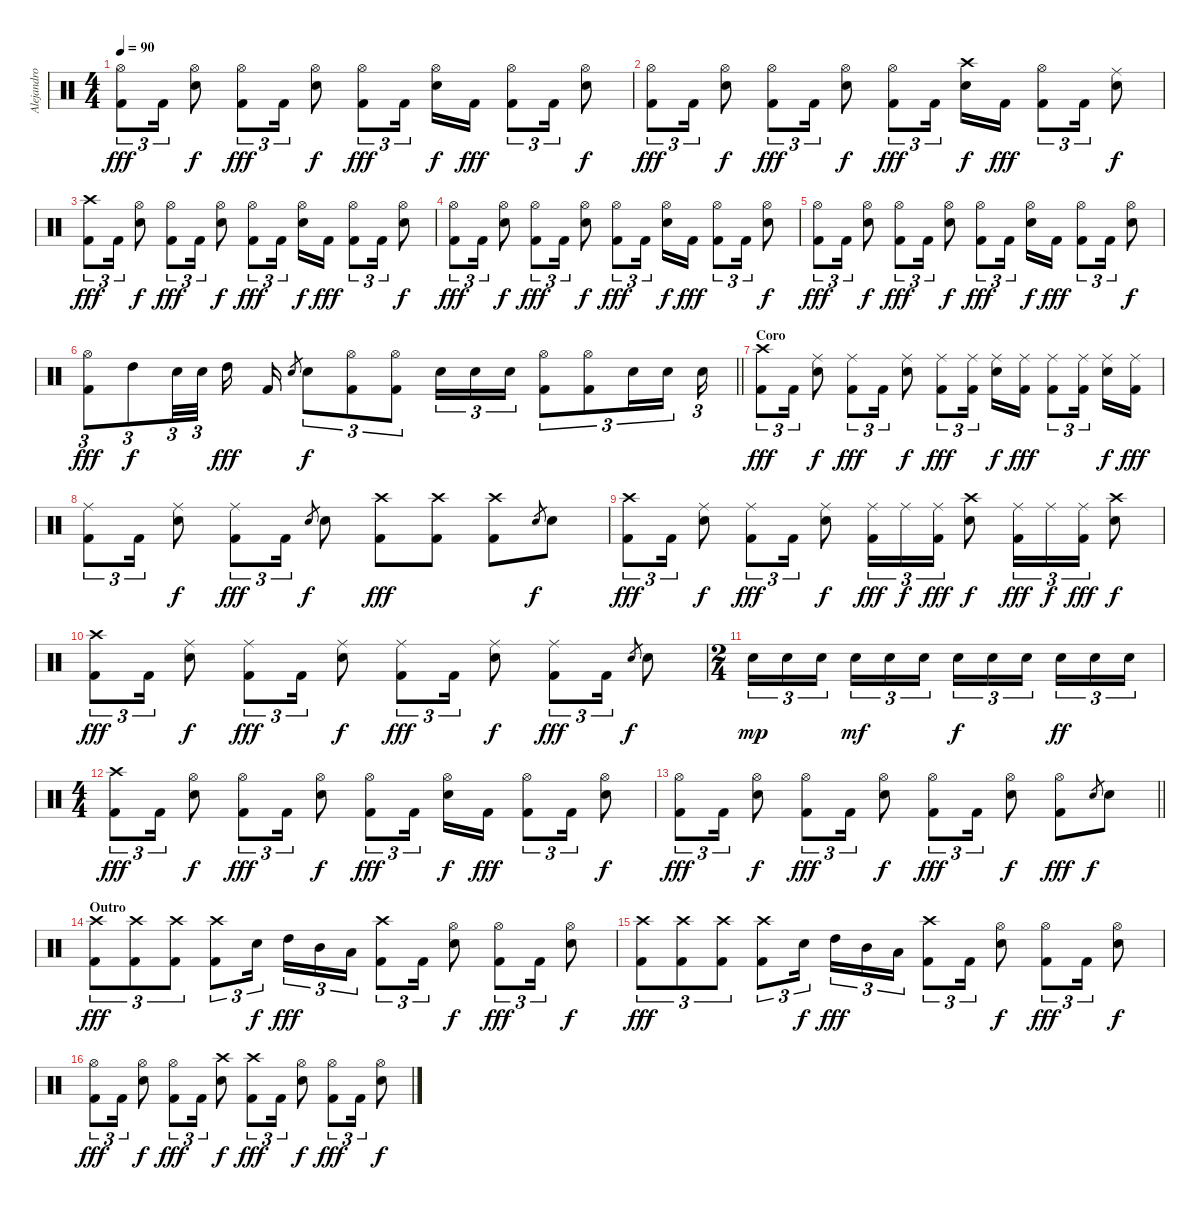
\track ("Alejandro Gutiérrez" "Alejandro ") {instrument percussion}
\staff {score}
\articulation defaults
\ts (4 4)
\tempo 90
\clef neutral
\ks c
("Hi-Hat (open)" "Kick (hit) 2").8{tu (3 2) dy fff} "Kick (hit) 2".16{tu (3 2)} ("Hi-Hat (open)" "Electric Snare (hit)").8{dy f} ("Hi-Hat (open)" "Kick (hit) 2").8{tu (3 2) dy fff} "Kick (hit) 2".16{tu (3 2)} ("Hi-Hat (open)" "Electric Snare (hit)").8{dy f} ("Hi-Hat (open)" "Kick (hit) 2").8{tu (3 2) dy fff} "Kick (hit) 2".16{tu (3 2) beam splitsecondary} ("Hi-Hat (open)" "Electric Snare (hit)").16{dy f} "Kick (hit) 2".16{dy fff} ("Hi-Hat (open)" "Kick (hit) 2").8{tu (3 2)} "Kick (hit) 2".16{tu (3 2)} ("Hi-Hat (open)" "Electric Snare (hit)").8{dy f} |
("Hi-Hat (open)" "Kick (hit) 2").8{tu (3 2) dy fff} "Kick (hit) 2".16{tu (3 2)} ("Hi-Hat (open)" "Electric Snare (hit)").8{dy f} ("Hi-Hat (open)" "Kick (hit) 2").8{tu (3 2) dy fff} "Kick (hit) 2".16{tu (3 2)} ("Hi-Hat (open)" "Electric Snare (hit)").8{dy f} ("Hi-Hat (open)" "Kick (hit) 2").8{tu (3 2) dy fff} "Kick (hit) 2".16{tu (3 2) beam splitsecondary} ("Crash high (hit)" "Electric Snare (hit)").16{dy f} "Kick (hit) 2".16{dy fff} ("Hi-Hat (open)" "Kick (hit) 2").8{tu (3 2)} "Kick (hit) 2".16{tu (3 2)} ("Ride (middle)" "Electric Snare (hit)").8{dy f} |
("Crash high (hit)" "Kick (hit) 2").8{tu (3 2) dy fff} "Kick (hit) 2".16{tu (3 2)} ("Hi-Hat (open)" "Electric Snare (hit)").8{dy f} ("Hi-Hat (open)" "Kick (hit) 2").8{tu (3 2) dy fff} "Kick (hit) 2".16{tu (3 2)} ("Hi-Hat (open)" "Electric Snare (hit)").8{dy f} ("Hi-Hat (open)" "Kick (hit) 2").8{tu (3 2) dy fff} "Kick (hit) 2".16{tu (3 2) beam splitsecondary} ("Hi-Hat (open)" "Electric Snare (hit)").16{dy f} "Kick (hit) 2".16{dy fff} ("Hi-Hat (open)" "Kick (hit) 2").8{tu (3 2)} "Kick (hit) 2".16{tu (3 2)} ("Hi-Hat (open)" "Electric Snare (hit)").8{dy f} |
("Hi-Hat (open)" "Kick (hit) 2").8{tu (3 2) dy fff} "Kick (hit) 2".16{tu (3 2)} ("Hi-Hat (open)" "Electric Snare (hit)").8{dy f} ("Hi-Hat (open)" "Kick (hit) 2").8{tu (3 2) dy fff} "Kick (hit) 2".16{tu (3 2)} ("Hi-Hat (open)" "Electric Snare (hit)").8{dy f} ("Hi-Hat (open)" "Kick (hit) 2").8{tu (3 2) dy fff} "Kick (hit) 2".16{tu (3 2) beam splitsecondary} ("Hi-Hat (open)" "Electric Snare (hit)").16{dy f} "Kick (hit) 2".16{dy fff} ("Hi-Hat (open)" "Kick (hit) 2").8{tu (3 2)} "Kick (hit) 2".16{tu (3 2)} ("Hi-Hat (open)" "Electric Snare (hit)").8{dy f} |
("Hi-Hat (open)" "Kick (hit) 2").8{tu (3 2) dy fff} "Kick (hit) 2".16{tu (3 2)} ("Hi-Hat (open)" "Electric Snare (hit)").8{dy f} ("Hi-Hat (open)" "Kick (hit) 2").8{tu (3 2) dy fff} "Kick (hit) 2".16{tu (3 2)} ("Hi-Hat (open)" "Electric Snare (hit)").8{dy f} ("Hi-Hat (open)" "Kick (hit) 2").8{tu (3 2) dy fff} "Kick (hit) 2".16{tu (3 2) beam splitsecondary} ("Hi-Hat (open)" "Electric Snare (hit)").16{dy f} "Kick (hit) 2".16{dy fff} ("Hi-Hat (open)" "Kick (hit) 2").8{tu (3 2)} "Kick (hit) 2".16{tu (3 2)} ("Hi-Hat (open)" "Electric Snare (hit)").8{dy f} |
\barLineRight lightlight
("Hi-Hat (open)" "Kick (hit) 2").8{tu (3 2) dy fff} "High Tom (hit)".8{tu (3 2) dy f} "Electric Snare (hit)".32{tu (3 2)} "Electric Snare (hit)".32{tu (3 2) beam splitsecondary} "High Tom (hit)".16{dy fff} "Kick (hit) 2".16 "Electric Snare (hit)".8{gr} "Electric Snare (hit)".8{tu (3 2) dy f} ("Hi-Hat (open)" "Kick (hit) 2").8{tu (3 2)} ("Hi-Hat (open)" "Kick (hit) 2").8{tu (3 2)} "Electric Snare (hit)".16{tu (3 2)} "Electric Snare (hit)".16{tu (3 2)} "Electric Snare (hit)".16{tu (3 2)} ("Hi-Hat (open)" "Kick (hit) 2").8{tu (3 2)} ("Hi-Hat (open)" "Kick (hit) 2").8{tu (3 2)} "Electric Snare (hit)".16{tu (3 2)} "Electric Snare (hit)".16{tu (3 2) beam splitsecondary} "Electric Snare (hit)".16{tu (3 2)} |
\section ("" "Coro")
("Crash high (hit)" "Kick (hit) 2").8{tu (3 2) dy fff} "Kick (hit) 2".16{tu (3 2)} ("Ride (middle)" "Electric Snare (hit)").8{dy f} ("Ride (middle)" "Kick (hit) 2").8{tu (3 2) dy fff} "Kick (hit) 2".16{tu (3 2)} ("Ride (middle)" "Electric Snare (hit)").8{dy f} ("Ride (middle)" "Kick (hit) 2").8{tu (3 2) dy fff} ("Ride (middle)" "Kick (hit) 2").16{tu (3 2) beam splitsecondary} ("Ride (middle)" "Electric Snare (hit)").16{dy f} ("Ride (middle)" "Kick (hit) 2").16{dy fff} ("Ride (middle)" "Kick (hit) 2").8{tu (3 2)} ("Ride (middle)" "Kick (hit) 2").16{tu (3 2) beam splitsecondary} ("Ride (middle)" "Electric Snare (hit)").16{dy f} ("Ride (middle)" "Kick (hit) 2").16{dy fff} |
("Ride (middle)" "Kick (hit) 2").8{tu (3 2)} "Kick (hit) 2".16{tu (3 2)} ("Ride (middle)" "Electric Snare (hit)").8{dy f} ("Ride (middle)" "Kick (hit) 2").8{tu (3 2) dy fff} "Kick (hit) 2".16{tu (3 2)} "Electric Snare (hit)".8{gr dy f} "Electric Snare (hit)".8 ("Crash high (hit)" "Kick (hit) 2").8{dy fff} ("Crash high (hit)" "Kick (hit) 2").8 ("Crash high (hit)" "Kick (hit) 2").8 "Electric Snare (hit)".8{gr dy f} "Electric Snare (hit)".8 |
("Crash high (hit)" "Kick (hit) 2").8{tu (3 2) dy fff} "Kick (hit) 2".16{tu (3 2)} ("Ride (middle)" "Electric Snare (hit)").8{dy f} ("Ride (middle)" "Kick (hit) 2").8{tu (3 2) dy fff} "Kick (hit) 2".16{tu (3 2)} ("Ride (middle)" "Electric Snare (hit)").8{dy f} ("Ride (middle)" "Kick (hit) 2").16{tu (3 2) dy fff} "Ride (middle)".16{tu (3 2) dy f} ("Ride (middle)" "Kick (hit) 2").16{tu (3 2) dy fff} ("Crash high (hit)" "Electric Snare (hit)").8{dy f} ("Ride (middle)" "Kick (hit) 2").16{tu (3 2) dy fff} "Ride (middle)".16{tu (3 2) dy f} ("Ride (middle)" "Kick (hit) 2").16{tu (3 2) dy fff} ("Crash high (hit)" "Electric Snare (hit)").8{dy f} |
("Crash high (hit)" "Kick (hit) 2").8{tu (3 2) dy fff} "Kick (hit) 2".16{tu (3 2)} ("Ride (middle)" "Electric Snare (hit)").8{dy f} ("Ride (middle)" "Kick (hit) 2").8{tu (3 2) dy fff} "Kick (hit) 2".16{tu (3 2)} ("Ride (middle)" "Electric Snare (hit)").8{dy f} ("Ride (middle)" "Kick (hit) 2").8{tu (3 2) dy fff} "Kick (hit) 2".16{tu (3 2)} ("Ride (middle)" "Electric Snare (hit)").8{dy f} ("Ride (middle)" "Kick (hit) 2").8{tu (3 2) dy fff} "Kick (hit) 2".16{tu (3 2)} "Electric Snare (hit)".8{gr dy f} "Electric Snare (hit)".8 |
\ts (2 4)
"Electric Snare (hit)".16{tu (3 2) dy mp} "Electric Snare (hit)".16{tu (3 2)} "Electric Snare (hit)".16{tu (3 2) beam splitsecondary} "Electric Snare (hit)".16{tu (3 2) dy mf} "Electric Snare (hit)".16{tu (3 2)} "Electric Snare (hit)".16{tu (3 2)} "Electric Snare (hit)".16{tu (3 2) dy f} "Electric Snare (hit)".16{tu (3 2)} "Electric Snare (hit)".16{tu (3 2) beam splitsecondary} "Electric Snare (hit)".16{tu (3 2) dy ff} "Electric Snare (hit)".16{tu (3 2)} "Electric Snare (hit)".16{tu (3 2)} |
\ts (4 4)
("Crash high (hit)" "Kick (hit) 2").8{tu (3 2) dy fff} "Kick (hit) 2".16{tu (3 2)} ("Hi-Hat (open)" "Electric Snare (hit)").8{dy f} ("Hi-Hat (open)" "Kick (hit) 2").8{tu (3 2) dy fff} "Kick (hit) 2".16{tu (3 2)} ("Hi-Hat (open)" "Electric Snare (hit)").8{dy f} ("Hi-Hat (open)" "Kick (hit) 2").8{tu (3 2) dy fff} "Kick (hit) 2".16{tu (3 2) beam splitsecondary} ("Hi-Hat (open)" "Electric Snare (hit)").16{dy f} "Kick (hit) 2".16{dy fff} ("Hi-Hat (open)" "Kick (hit) 2").8{tu (3 2)} "Kick (hit) 2".16{tu (3 2)} ("Hi-Hat (open)" "Electric Snare (hit)").8{dy f} |
\barLineRight lightlight
("Hi-Hat (open)" "Kick (hit) 2").8{tu (3 2) dy fff} "Kick (hit) 2".16{tu (3 2)} ("Hi-Hat (open)" "Electric Snare (hit)").8{dy f} ("Hi-Hat (open)" "Kick (hit) 2").8{tu (3 2) dy fff} "Kick (hit) 2".16{tu (3 2)} ("Hi-Hat (open)" "Electric Snare (hit)").8{dy f} ("Hi-Hat (open)" "Kick (hit) 2").8{tu (3 2) dy fff} "Kick (hit) 2".16{tu (3 2)} ("Hi-Hat (open)" "Electric Snare (hit)").8{dy f} ("Hi-Hat (open)" "Kick (hit) 2").8{dy fff} "Electric Snare (hit)".8{gr dy f} "Electric Snare (hit)".8 |
\section ("" "Outro")
("Crash high (hit)" "Kick (hit) 2").8{tu (3 2) dy fff} ("Crash high (hit)" "Kick (hit) 2").8{tu (3 2)} ("Crash high (hit)" "Kick (hit) 2").8{tu (3 2)} ("Crash high (hit)" "Kick (hit) 2").8{tu (3 2)} "Electric Snare (hit)".16{tu (3 2) dy f beam splitsecondary} "High Tom (hit)".16{tu (3 2) dy fff} "Mid Tom (hit)".16{tu (3 2)} "Low Tom (hit)".16{tu (3 2)} ("Crash high (hit)" "Kick (hit) 2").8{tu (3 2)} "Kick (hit) 2".16{tu (3 2)} ("Hi-Hat (open)" "Electric Snare (hit)").8{dy f} ("Hi-Hat (open)" "Kick (hit) 2").8{tu (3 2) dy fff} "Kick (hit) 2".16{tu (3 2)} ("Hi-Hat (open)" "Electric Snare (hit)").8{dy f} |
("Crash high (hit)" "Kick (hit) 2").8{tu (3 2) dy fff} ("Crash high (hit)" "Kick (hit) 2").8{tu (3 2)} ("Crash high (hit)" "Kick (hit) 2").8{tu (3 2)} ("Crash high (hit)" "Kick (hit) 2").8{tu (3 2)} "Electric Snare (hit)".16{tu (3 2) dy f beam splitsecondary} "High Tom (hit)".16{tu (3 2) dy fff} "Mid Tom (hit)".16{tu (3 2)} "Low Tom (hit)".16{tu (3 2)} ("Crash high (hit)" "Kick (hit) 2").8{tu (3 2)} "Kick (hit) 2".16{tu (3 2)} ("Hi-Hat (open)" "Electric Snare (hit)").8{dy f} ("Hi-Hat (open)" "Kick (hit) 2").8{tu (3 2) dy fff} "Kick (hit) 2".16{tu (3 2)} ("Hi-Hat (open)" "Electric Snare (hit)").8{dy f} |
("Hi-Hat (open)" "Kick (hit) 2").8{tu (3 2) dy fff} "Kick (hit) 2".16{tu (3 2)} ("Hi-Hat (open)" "Electric Snare (hit)").8{dy f} ("Hi-Hat (open)" "Kick (hit) 2").8{tu (3 2) dy fff} "Kick (hit) 2".16{tu (3 2)} ("Crash high (hit)" "Electric Snare (hit)").8{dy f} ("Crash high (hit)" "Kick (hit) 2").8{tu (3 2) dy fff} "Kick (hit) 2".16{tu (3 2)} ("Hi-Hat (open)" "Electric Snare (hit)").8{dy f} ("Hi-Hat (open)" "Kick (hit) 2").8{tu (3 2) dy fff} "Kick (hit) 2".16{tu (3 2)} ("Hi-Hat (open)" "Electric Snare (hit)").8{dy f}
